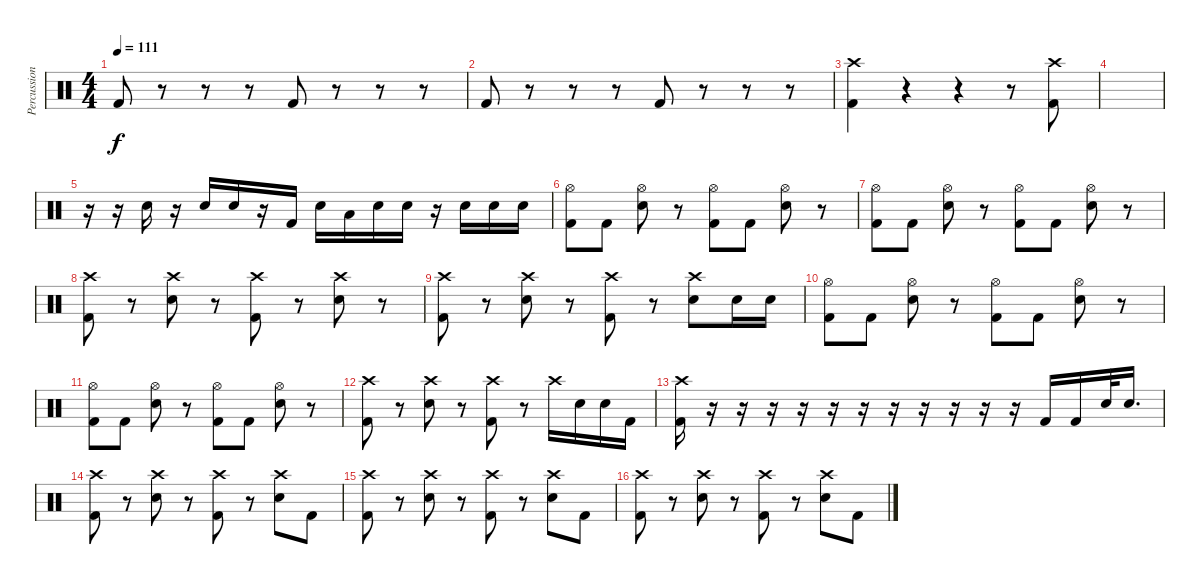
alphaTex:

\track ("Percussion" "Percussion") {instrument percussion}
\staff {score}
\articulation defaults
\ts (4 4)
\tempo 111
\clef neutral
\ks c "Kick (hit) 2".8{dy f}
r.8 r.8 r.8 "Kick (hit) 2".8 r.8 r.8 r.8 |
"Kick (hit) 2".8 r.8 r.8 r.8 "Kick (hit) 2".8 r.8 r.8 r.8 |
("Crash high (hit)" "Kick (hit) 2").4 r.4 r.4 r.8 ("Crash high (hit)" "Kick (hit) 2").8 |
|
r.16 r.16 "Snare (hit) 2".16 r.16 "Snare (hit) 2".16 "Snare (hit) 2".16 r.16 "Kick (hit) 2".16 "Snare (hit) 2".16 "Low Tom (hit)".16 "Snare (hit) 2".16 "Snare (hit) 2".16 r.16 "Snare (hit) 2".16 "Snare (hit) 2".16 "Snare (hit) 2".16 |
("Hi-Hat (open)" "Kick (hit) 2").8 "Kick (hit) 2".8 ("Hi-Hat (open)" "Snare (hit) 2").8 r.8 ("Hi-Hat (open)" "Kick (hit) 2").8 "Kick (hit) 2".8 ("Hi-Hat (open)" "Snare (hit) 2").8 r.8 |
("Hi-Hat (open)" "Kick (hit) 2").8 "Kick (hit) 2".8 ("Hi-Hat (open)" "Snare (hit) 2").8 r.8 ("Hi-Hat (open)" "Kick (hit) 2").8 "Kick (hit) 2".8 ("Hi-Hat (open)" "Snare (hit) 2").8 r.8 |
("Crash high (hit)" "Kick (hit) 2").8 r.8 ("Crash high (hit)" "Snare (hit) 2").8 r.8 ("Crash high (hit)" "Kick (hit) 2").8 r.8 ("Crash high (hit)" "Snare (hit) 2").8 r.8 |
("Crash high (hit)" "Kick (hit) 2").8 r.8 ("Crash high (hit)" "Snare (hit) 2").8 r.8 ("Crash high (hit)" "Kick (hit) 2").8 r.8 ("Crash high (hit)" "Snare (hit) 2").8 "Snare (hit) 2".16 "Snare (hit) 2".16 |
("Hi-Hat (open)" "Kick (hit) 2").8 "Kick (hit) 2".8 ("Hi-Hat (open)" "Snare (hit) 2").8 r.8 ("Hi-Hat (open)" "Kick (hit) 2").8 "Kick (hit) 2".8 ("Hi-Hat (open)" "Snare (hit) 2").8 r.8 |
("Hi-Hat (open)" "Kick (hit) 2").8 "Kick (hit) 2".8 ("Hi-Hat (open)" "Snare (hit) 2").8 r.8 ("Hi-Hat (open)" "Kick (hit) 2").8 "Kick (hit) 2".8 ("Hi-Hat (open)" "Snare (hit) 2").8 r.8 |
("Crash high (hit)" "Kick (hit) 2").8 r.8 ("Crash high (hit)" "Snare (hit) 2").8 r.8 ("Crash high (hit)" "Kick (hit) 2").8 r.8 "Crash high (hit)".16 "Snare (hit) 2".16 "Snare (hit) 2".16 "Kick (hit) 2".16 |
("Crash high (hit)" "Kick (hit) 2").16 r.16 r.16 r.16 r.16 r.16 r.16 r.16 r.16 r.16 r.16 r.16 "Kick (hit) 2".16 "Kick (hit) 2".16 "Snare (hit) 2".32 "Snare (hit) 2".16{d} |
("Crash high (hit)" "Kick (hit) 2").8 r.8 ("Crash high (hit)" "Snare (hit) 2").8 r.8 ("Crash high (hit)" "Kick (hit) 2").8 r.8 ("Crash high (hit)" "Snare (hit) 2").8 "Kick (hit) 2".8 |
("Crash high (hit)" "Kick (hit) 2").8 r.8 ("Crash high (hit)" "Snare (hit) 2").8 r.8 ("Crash high (hit)" "Kick (hit) 2").8 r.8 ("Crash high (hit)" "Snare (hit) 2").8 "Kick (hit) 2".8 |
("Crash high (hit)" "Kick (hit) 2").8 r.8 ("Crash high (hit)" "Snare (hit) 2").8 r.8 ("Crash high (hit)" "Kick (hit) 2").8 r.8 ("Crash high (hit)" "Snare (hit) 2").8 "Kick (hit) 2".8
